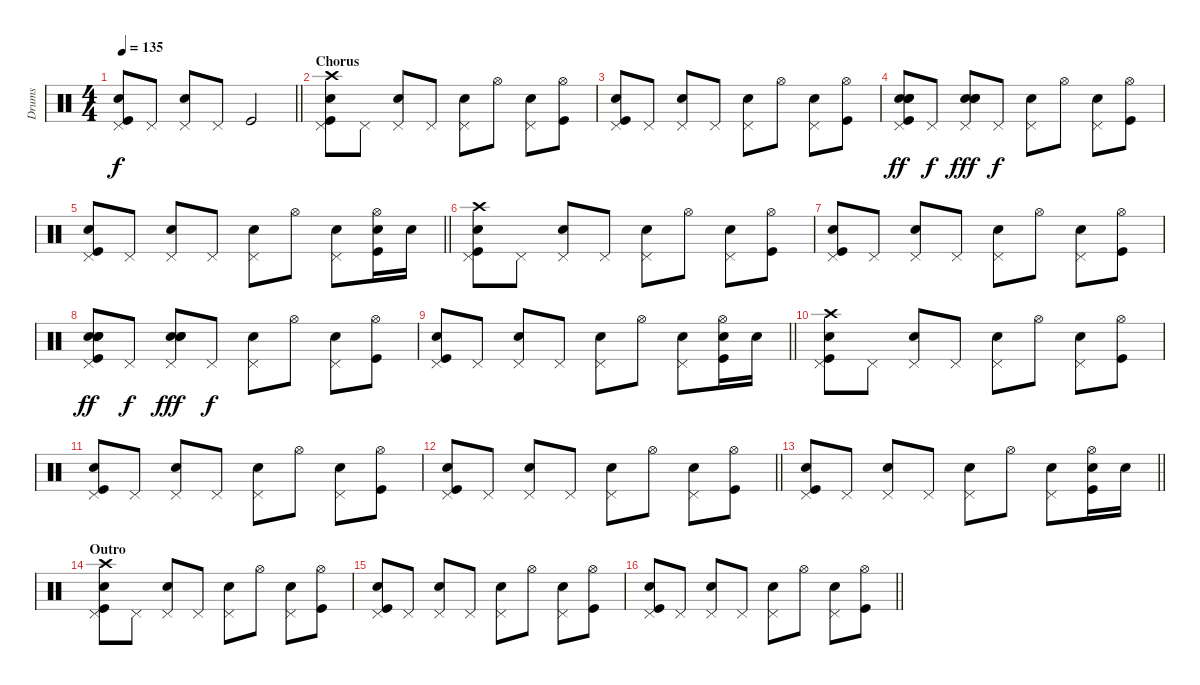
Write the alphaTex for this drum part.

\track ("Drums" "Drums") {instrument percussion}
\staff {score}
\articulation defaults
\ts (4 4)
\tempo 135
\clef neutral
\barLineRight lightlight
\ks c
("Pedal Hi-Hat (hit)" "Kick (hit)" "Electric Snare (hit)").8{dy f} "Pedal Hi-Hat (hit)".8 ("Pedal Hi-Hat (hit)" "Electric Snare (hit)").8 "Pedal Hi-Hat (hit)".8 "Kick (hit)".2 |
\section ("" "Chorus")
("Pedal Hi-Hat (hit)" "Kick (hit)" "Electric Snare (hit)" "Crash high (hit)").8 "Pedal Hi-Hat (hit)".8 ("Pedal Hi-Hat (hit)" "Electric Snare (hit)").8 "Pedal Hi-Hat (hit)".8 ("Pedal Hi-Hat (hit)" "Electric Snare (hit)").8 "Hi-Hat (open)".8 ("Pedal Hi-Hat (hit)" "Electric Snare (hit)").8 ("Hi-Hat (open)" "Kick (hit)").8 |
("Pedal Hi-Hat (hit)" "Kick (hit)" "Electric Snare (hit)").8 "Pedal Hi-Hat (hit)".8 ("Pedal Hi-Hat (hit)" "Electric Snare (hit)").8 "Pedal Hi-Hat (hit)".8 ("Pedal Hi-Hat (hit)" "Electric Snare (hit)").8 "Hi-Hat (open)".8 ("Pedal Hi-Hat (hit)" "Electric Snare (hit)").8 ("Hi-Hat (open)" "Kick (hit)").8 |
("Pedal Hi-Hat (hit)" "Kick (hit)" "Electric Snare (hit)" "Hand Clap (hit)" "Hand Clap (hit)").8{dy ff} "Pedal Hi-Hat (hit)".8{dy f} ("Pedal Hi-Hat (hit)" "Electric Snare (hit)" "Hand Clap (hit)" "Hand Clap (hit)").8{dy fff} "Pedal Hi-Hat (hit)".8{dy f} ("Pedal Hi-Hat (hit)" "Electric Snare (hit)").8 "Hi-Hat (open)".8 ("Pedal Hi-Hat (hit)" "Electric Snare (hit)").8 ("Hi-Hat (open)" "Kick (hit)").8 |
\barLineRight lightlight
("Pedal Hi-Hat (hit)" "Kick (hit)" "Electric Snare (hit)").8 "Pedal Hi-Hat (hit)".8 ("Pedal Hi-Hat (hit)" "Electric Snare (hit)").8 "Pedal Hi-Hat (hit)".8 ("Pedal Hi-Hat (hit)" "Electric Snare (hit)").8 "Hi-Hat (open)".8 ("Pedal Hi-Hat (hit)" "Electric Snare (hit)").8 ("Hi-Hat (open)" "Kick (hit)" "Electric Snare (hit)").16 "Electric Snare (hit)".16 |
("Pedal Hi-Hat (hit)" "Kick (hit)" "Electric Snare (hit)" "Crash high (hit)").8 "Pedal Hi-Hat (hit)".8 ("Pedal Hi-Hat (hit)" "Electric Snare (hit)").8 "Pedal Hi-Hat (hit)".8 ("Pedal Hi-Hat (hit)" "Electric Snare (hit)").8 "Hi-Hat (open)".8 ("Pedal Hi-Hat (hit)" "Electric Snare (hit)").8 ("Hi-Hat (open)" "Kick (hit)").8 |
("Pedal Hi-Hat (hit)" "Kick (hit)" "Electric Snare (hit)").8 "Pedal Hi-Hat (hit)".8 ("Pedal Hi-Hat (hit)" "Electric Snare (hit)").8 "Pedal Hi-Hat (hit)".8 ("Pedal Hi-Hat (hit)" "Electric Snare (hit)").8 "Hi-Hat (open)".8 ("Pedal Hi-Hat (hit)" "Electric Snare (hit)").8 ("Hi-Hat (open)" "Kick (hit)").8 |
("Pedal Hi-Hat (hit)" "Kick (hit)" "Electric Snare (hit)" "Hand Clap (hit)" "Hand Clap (hit)").8{dy ff} "Pedal Hi-Hat (hit)".8{dy f} ("Pedal Hi-Hat (hit)" "Electric Snare (hit)" "Hand Clap (hit)" "Hand Clap (hit)").8{dy fff} "Pedal Hi-Hat (hit)".8{dy f} ("Pedal Hi-Hat (hit)" "Electric Snare (hit)").8 "Hi-Hat (open)".8 ("Pedal Hi-Hat (hit)" "Electric Snare (hit)").8 ("Hi-Hat (open)" "Kick (hit)").8 |
\barLineRight lightlight
("Pedal Hi-Hat (hit)" "Kick (hit)" "Electric Snare (hit)").8 "Pedal Hi-Hat (hit)".8 ("Pedal Hi-Hat (hit)" "Electric Snare (hit)").8 "Pedal Hi-Hat (hit)".8 ("Pedal Hi-Hat (hit)" "Electric Snare (hit)").8 "Hi-Hat (open)".8 ("Pedal Hi-Hat (hit)" "Electric Snare (hit)").8 ("Hi-Hat (open)" "Kick (hit)" "Electric Snare (hit)").16 "Electric Snare (hit)".16 |
("Pedal Hi-Hat (hit)" "Kick (hit)" "Electric Snare (hit)" "Crash high (hit)").8 "Pedal Hi-Hat (hit)".8 ("Pedal Hi-Hat (hit)" "Electric Snare (hit)").8 "Pedal Hi-Hat (hit)".8 ("Pedal Hi-Hat (hit)" "Electric Snare (hit)").8 "Hi-Hat (open)".8 ("Pedal Hi-Hat (hit)" "Electric Snare (hit)").8 ("Hi-Hat (open)" "Kick (hit)").8 |
("Pedal Hi-Hat (hit)" "Kick (hit)" "Electric Snare (hit)").8 "Pedal Hi-Hat (hit)".8 ("Pedal Hi-Hat (hit)" "Electric Snare (hit)").8 "Pedal Hi-Hat (hit)".8 ("Pedal Hi-Hat (hit)" "Electric Snare (hit)").8 "Hi-Hat (open)".8 ("Pedal Hi-Hat (hit)" "Electric Snare (hit)").8 ("Hi-Hat (open)" "Kick (hit)").8 |
\barLineRight lightlight
("Pedal Hi-Hat (hit)" "Kick (hit)" "Electric Snare (hit)").8 "Pedal Hi-Hat (hit)".8 ("Pedal Hi-Hat (hit)" "Electric Snare (hit)").8 "Pedal Hi-Hat (hit)".8 ("Pedal Hi-Hat (hit)" "Electric Snare (hit)").8 "Hi-Hat (open)".8 ("Pedal Hi-Hat (hit)" "Electric Snare (hit)").8 ("Hi-Hat (open)" "Kick (hit)").8 |
\barLineRight lightlight
("Pedal Hi-Hat (hit)" "Kick (hit)" "Electric Snare (hit)").8 "Pedal Hi-Hat (hit)".8 ("Pedal Hi-Hat (hit)" "Electric Snare (hit)").8 "Pedal Hi-Hat (hit)".8 ("Pedal Hi-Hat (hit)" "Electric Snare (hit)").8 "Hi-Hat (open)".8 ("Pedal Hi-Hat (hit)" "Electric Snare (hit)").8 ("Hi-Hat (open)" "Kick (hit)" "Electric Snare (hit)").16 "Electric Snare (hit)".16 |
\section ("" "Outro")
("Pedal Hi-Hat (hit)" "Kick (hit)" "Electric Snare (hit)" "Crash high (hit)").8 "Pedal Hi-Hat (hit)".8 ("Pedal Hi-Hat (hit)" "Electric Snare (hit)").8 "Pedal Hi-Hat (hit)".8 ("Pedal Hi-Hat (hit)" "Electric Snare (hit)").8 "Hi-Hat (open)".8 ("Pedal Hi-Hat (hit)" "Electric Snare (hit)").8 ("Hi-Hat (open)" "Kick (hit)").8 |
("Pedal Hi-Hat (hit)" "Kick (hit)" "Electric Snare (hit)").8 "Pedal Hi-Hat (hit)".8 ("Pedal Hi-Hat (hit)" "Electric Snare (hit)").8 "Pedal Hi-Hat (hit)".8 ("Pedal Hi-Hat (hit)" "Electric Snare (hit)").8 "Hi-Hat (open)".8 ("Pedal Hi-Hat (hit)" "Electric Snare (hit)").8 ("Hi-Hat (open)" "Kick (hit)").8 |
\barLineRight lightlight
("Pedal Hi-Hat (hit)" "Kick (hit)" "Electric Snare (hit)").8 "Pedal Hi-Hat (hit)".8 ("Pedal Hi-Hat (hit)" "Electric Snare (hit)").8 "Pedal Hi-Hat (hit)".8 ("Pedal Hi-Hat (hit)" "Electric Snare (hit)").8 "Hi-Hat (open)".8 ("Pedal Hi-Hat (hit)" "Electric Snare (hit)").8 ("Hi-Hat (open)" "Kick (hit)").8
